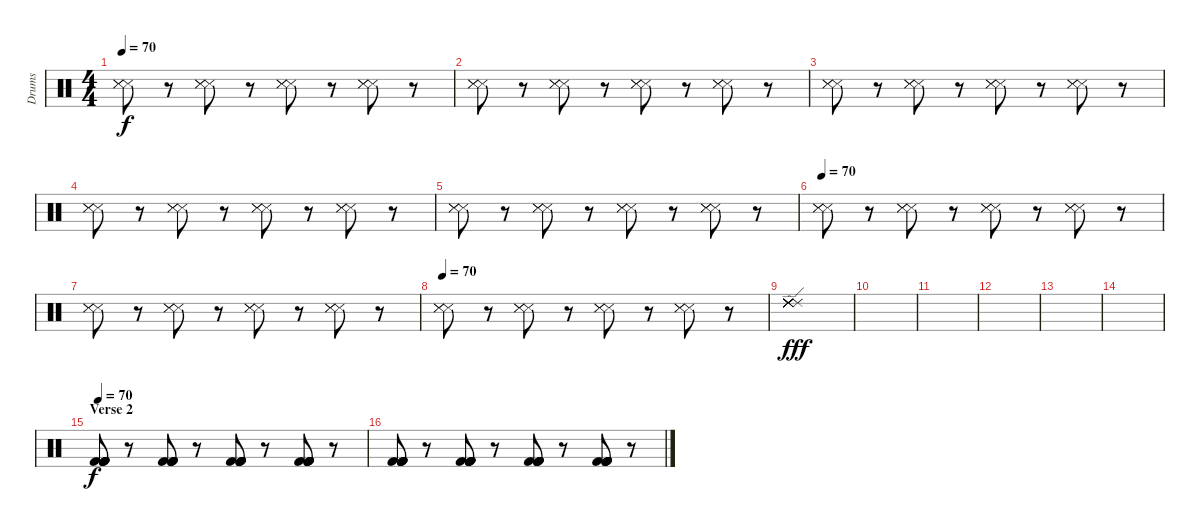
\track ("Drums" "Drums") {instrument percussion}
\staff {score}
\articulation defaults
\ts (4 4)
\tempo 70
\clef neutral
\ks c
("Snare (side stick) 3" "Snare (side stick) 3" "Snare (side stick) 3").8{dy f} r.8 ("Snare (side stick) 3" "Snare (side stick) 3" "Snare (side stick) 3").8 r.8 ("Snare (side stick) 3" "Snare (side stick) 3" "Snare (side stick) 3").8 r.8 ("Snare (side stick) 3" "Snare (side stick) 3" "Snare (side stick) 3").8 r.8 |
("Snare (side stick) 3" "Snare (side stick) 3" "Snare (side stick) 3").8 r.8 ("Snare (side stick) 3" "Snare (side stick) 3" "Snare (side stick) 3").8 r.8 ("Snare (side stick) 3" "Snare (side stick) 3" "Snare (side stick) 3").8 r.8 ("Snare (side stick) 3" "Snare (side stick) 3" "Snare (side stick) 3").8 r.8 |
("Snare (side stick) 3" "Snare (side stick) 3" "Snare (side stick) 3").8 r.8 ("Snare (side stick) 3" "Snare (side stick) 3" "Snare (side stick) 3").8 r.8 ("Snare (side stick) 3" "Snare (side stick) 3" "Snare (side stick) 3").8 r.8 ("Snare (side stick) 3" "Snare (side stick) 3" "Snare (side stick) 3").8 r.8 |
("Snare (side stick) 3" "Snare (side stick) 3" "Snare (side stick) 3").8 r.8 ("Snare (side stick) 3" "Snare (side stick) 3" "Snare (side stick) 3").8 r.8 ("Snare (side stick) 3" "Snare (side stick) 3" "Snare (side stick) 3").8 r.8 ("Snare (side stick) 3" "Snare (side stick) 3" "Snare (side stick) 3").8 r.8 |
("Snare (side stick) 3" "Snare (side stick) 3" "Snare (side stick) 3").8 r.8 ("Snare (side stick) 3" "Snare (side stick) 3" "Snare (side stick) 3").8 r.8 ("Snare (side stick) 3" "Snare (side stick) 3" "Snare (side stick) 3").8 r.8 ("Snare (side stick) 3" "Snare (side stick) 3" "Snare (side stick) 3").8 r.8 |
\tempo 70
("Snare (side stick) 3" "Snare (side stick) 3" "Snare (side stick) 3").8 r.8 ("Snare (side stick) 3" "Snare (side stick) 3" "Snare (side stick) 3").8 r.8 ("Snare (side stick) 3" "Snare (side stick) 3" "Snare (side stick) 3").8 r.8 ("Snare (side stick) 3" "Snare (side stick) 3" "Snare (side stick) 3").8 r.8 |
("Snare (side stick) 3" "Snare (side stick) 3" "Snare (side stick) 3").8 r.8 ("Snare (side stick) 3" "Snare (side stick) 3" "Snare (side stick) 3").8 r.8 ("Snare (side stick) 3" "Snare (side stick) 3" "Snare (side stick) 3").8 r.8 ("Snare (side stick) 3" "Snare (side stick) 3" "Snare (side stick) 3").8 r.8 |
\tempo 70
("Snare (side stick) 3" "Snare (side stick) 3" "Snare (side stick) 3").8 r.8 ("Snare (side stick) 3" "Snare (side stick) 3" "Snare (side stick) 3").8 r.8 ("Snare (side stick) 3" "Snare (side stick) 3" "Snare (side stick) 3").8 r.8 ("Snare (side stick) 3" "Snare (side stick) 3" "Snare (side stick) 3").8 r.8 |
("Ride (edge) 2" "Ride (edge) 2" "Ride (edge) 2" "Ride (edge) 2" "Ride (edge) 2" "Ride (edge) 2").1{dy fff} |
|
|
|
|
|
\section ("" "Verse 2")
\tempo 70
("Kick (hit) 2" "Kick (hit) 2" "Kick (hit) 2" "Kick (hit) 2" "Kick (hit) 2").8{dy f} r.8 ("Kick (hit) 2" "Kick (hit) 2" "Kick (hit) 2" "Kick (hit) 2" "Kick (hit) 2").8 r.8 ("Kick (hit) 2" "Kick (hit) 2" "Kick (hit) 2" "Kick (hit) 2" "Kick (hit) 2").8 r.8 ("Kick (hit) 2" "Kick (hit) 2" "Kick (hit) 2" "Kick (hit) 2" "Kick (hit) 2").8 r.8 |
("Kick (hit) 2" "Kick (hit) 2" "Kick (hit) 2" "Kick (hit) 2" "Kick (hit) 2").8 r.8 ("Kick (hit) 2" "Kick (hit) 2" "Kick (hit) 2" "Kick (hit) 2" "Kick (hit) 2").8 r.8 ("Kick (hit) 2" "Kick (hit) 2" "Kick (hit) 2" "Kick (hit) 2" "Kick (hit) 2").8 r.8 ("Kick (hit) 2" "Kick (hit) 2" "Kick (hit) 2" "Kick (hit) 2" "Kick (hit) 2").8 r.8
